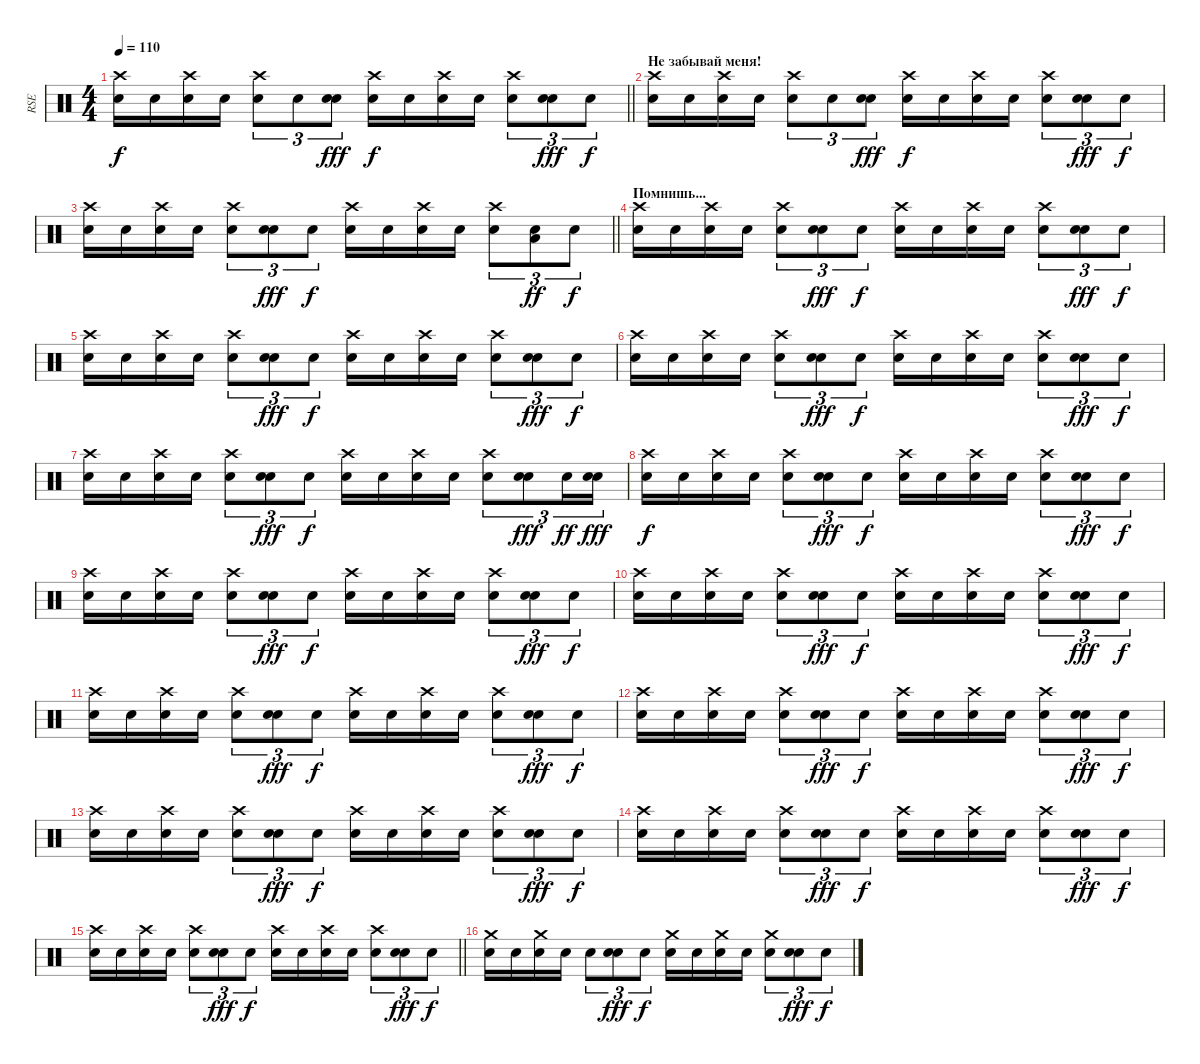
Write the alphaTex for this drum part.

\track ("RSE" "RSE") {instrument percussion}
\staff
\articulation defaults
\ts (4 4)
\tempo 110
\clef neutral
\barLineRight lightlight
\ks c
("Crash high (hit)" "Snare (hit)").16{dy f} "Snare (hit)".16 ("Crash high (hit)" "Snare (hit)").16 "Snare (hit)".16 ("Crash high (hit)" "Snare (hit)").8{tu (3 2)} "Snare (hit)".8{tu (3 2)} ("Electric Snare (hit)" "Snare (hit)").8{tu (3 2) dy fff} ("Crash high (hit)" "Snare (hit)").16{dy f} "Snare (hit)".16 ("Crash high (hit)" "Snare (hit)").16 "Snare (hit)".16 ("Crash high (hit)" "Snare (hit)").8{tu (3 2)} ("Electric Snare (hit)" "Snare (hit)").8{tu (3 2) dy fff} "Snare (hit)".8{tu (3 2) dy f} |
\section ("" "Не забывай меня!")
("Crash high (hit)" "Snare (hit)").16 "Snare (hit)".16 ("Crash high (hit)" "Snare (hit)").16 "Snare (hit)".16 ("Crash high (hit)" "Snare (hit)").8{tu (3 2)} "Snare (hit)".8{tu (3 2)} ("Electric Snare (hit)" "Snare (hit)").8{tu (3 2) dy fff} ("Crash high (hit)" "Snare (hit)").16{dy f} "Snare (hit)".16 ("Crash high (hit)" "Snare (hit)").16 "Snare (hit)".16 ("Crash high (hit)" "Snare (hit)").8{tu (3 2)} ("Electric Snare (hit)" "Snare (hit)").8{tu (3 2) dy fff} "Snare (hit)".8{tu (3 2) dy f} |
\barLineRight lightlight
("Crash high (hit)" "Snare (hit)").16 "Snare (hit)".16 ("Crash high (hit)" "Snare (hit)").16 "Snare (hit)".16 ("Crash high (hit)" "Snare (hit)").8{tu (3 2)} ("Electric Snare (hit)" "Snare (hit)").8{tu (3 2) dy fff} "Snare (hit)".8{tu (3 2) dy f} ("Crash high (hit)" "Snare (hit)").16 "Snare (hit)".16 ("Crash high (hit)" "Snare (hit)").16 "Snare (hit)".16 ("Crash high (hit)" "Snare (hit)").8{tu (3 2)} ("Low Floor Tom (hit)" "Snare (hit)").8{tu (3 2) dy ff} "Snare (hit)".8{tu (3 2) dy f} |
\section ("" "Помнишь...")
("Crash high (hit)" "Snare (hit)").16 "Snare (hit)".16 ("Crash high (hit)" "Snare (hit)").16 "Snare (hit)".16 ("Crash high (hit)" "Snare (hit)").8{tu (3 2)} ("Electric Snare (hit)" "Snare (hit)").8{tu (3 2) dy fff} "Snare (hit)".8{tu (3 2) dy f} ("Crash high (hit)" "Snare (hit)").16 "Snare (hit)".16 ("Crash high (hit)" "Snare (hit)").16 "Snare (hit)".16 ("Crash high (hit)" "Snare (hit)").8{tu (3 2)} ("Electric Snare (hit)" "Snare (hit)").8{tu (3 2) dy fff} "Snare (hit)".8{tu (3 2) dy f} |
("Crash high (hit)" "Snare (hit)").16 "Snare (hit)".16 ("Crash high (hit)" "Snare (hit)").16 "Snare (hit)".16 ("Crash high (hit)" "Snare (hit)").8{tu (3 2)} ("Electric Snare (hit)" "Snare (hit)").8{tu (3 2) dy fff} "Snare (hit)".8{tu (3 2) dy f} ("Crash high (hit)" "Snare (hit)").16 "Snare (hit)".16 ("Crash high (hit)" "Snare (hit)").16 "Snare (hit)".16 ("Crash high (hit)" "Snare (hit)").8{tu (3 2)} ("Electric Snare (hit)" "Snare (hit)").8{tu (3 2) dy fff} "Snare (hit)".8{tu (3 2) dy f} |
("Crash high (hit)" "Snare (hit)").16 "Snare (hit)".16 ("Crash high (hit)" "Snare (hit)").16 "Snare (hit)".16 ("Crash high (hit)" "Snare (hit)").8{tu (3 2)} ("Electric Snare (hit)" "Snare (hit)").8{tu (3 2) dy fff} "Snare (hit)".8{tu (3 2) dy f} ("Crash high (hit)" "Snare (hit)").16 "Snare (hit)".16 ("Crash high (hit)" "Snare (hit)").16 "Snare (hit)".16 ("Crash high (hit)" "Snare (hit)").8{tu (3 2)} ("Electric Snare (hit)" "Snare (hit)").8{tu (3 2) dy fff} "Snare (hit)".8{tu (3 2) dy f} |
("Crash high (hit)" "Snare (hit)").16 "Snare (hit)".16 ("Crash high (hit)" "Snare (hit)").16 "Snare (hit)".16 ("Crash high (hit)" "Snare (hit)").8{tu (3 2)} ("Electric Snare (hit)" "Snare (hit)").8{tu (3 2) dy fff} "Snare (hit)".8{tu (3 2) dy f} ("Crash high (hit)" "Snare (hit)").16 "Snare (hit)".16 ("Crash high (hit)" "Snare (hit)").16 "Snare (hit)".16 ("Crash high (hit)" "Snare (hit)").8{tu (3 2)} ("Electric Snare (hit)" "Snare (hit)").8{tu (3 2) dy fff} "Snare (hit)".16{tu (3 2) dy ff} ("Electric Snare (hit)" "Snare (hit)").16{tu (3 2) dy fff} |
("Crash high (hit)" "Snare (hit)").16{dy f} "Snare (hit)".16 ("Crash high (hit)" "Snare (hit)").16 "Snare (hit)".16 ("Crash high (hit)" "Snare (hit)").8{tu (3 2)} ("Electric Snare (hit)" "Snare (hit)").8{tu (3 2) dy fff} "Snare (hit)".8{tu (3 2) dy f} ("Crash high (hit)" "Snare (hit)").16 "Snare (hit)".16 ("Crash high (hit)" "Snare (hit)").16 "Snare (hit)".16 ("Crash high (hit)" "Snare (hit)").8{tu (3 2)} ("Electric Snare (hit)" "Snare (hit)").8{tu (3 2) dy fff} "Snare (hit)".8{tu (3 2) dy f} |
("Crash high (hit)" "Snare (hit)").16 "Snare (hit)".16 ("Crash high (hit)" "Snare (hit)").16 "Snare (hit)".16 ("Crash high (hit)" "Snare (hit)").8{tu (3 2)} ("Electric Snare (hit)" "Snare (hit)").8{tu (3 2) dy fff} "Snare (hit)".8{tu (3 2) dy f} ("Crash high (hit)" "Snare (hit)").16 "Snare (hit)".16 ("Crash high (hit)" "Snare (hit)").16 "Snare (hit)".16 ("Crash high (hit)" "Snare (hit)").8{tu (3 2)} ("Electric Snare (hit)" "Snare (hit)").8{tu (3 2) dy fff} "Snare (hit)".8{tu (3 2) dy f} |
("Crash high (hit)" "Snare (hit)").16 "Snare (hit)".16 ("Crash high (hit)" "Snare (hit)").16 "Snare (hit)".16 ("Crash high (hit)" "Snare (hit)").8{tu (3 2)} ("Electric Snare (hit)" "Snare (hit)").8{tu (3 2) dy fff} "Snare (hit)".8{tu (3 2) dy f} ("Crash high (hit)" "Snare (hit)").16 "Snare (hit)".16 ("Crash high (hit)" "Snare (hit)").16 "Snare (hit)".16 ("Crash high (hit)" "Snare (hit)").8{tu (3 2)} ("Electric Snare (hit)" "Snare (hit)").8{tu (3 2) dy fff} "Snare (hit)".8{tu (3 2) dy f} |
("Crash high (hit)" "Snare (hit)").16 "Snare (hit)".16 ("Crash high (hit)" "Snare (hit)").16 "Snare (hit)".16 ("Crash high (hit)" "Snare (hit)").8{tu (3 2)} ("Electric Snare (hit)" "Snare (hit)").8{tu (3 2) dy fff} "Snare (hit)".8{tu (3 2) dy f} ("Crash high (hit)" "Snare (hit)").16 "Snare (hit)".16 ("Crash high (hit)" "Snare (hit)").16 "Snare (hit)".16 ("Crash high (hit)" "Snare (hit)").8{tu (3 2)} ("Electric Snare (hit)" "Snare (hit)").8{tu (3 2) dy fff} "Snare (hit)".8{tu (3 2) dy f} |
("Crash high (hit)" "Snare (hit)").16 "Snare (hit)".16 ("Crash high (hit)" "Snare (hit)").16 "Snare (hit)".16 ("Crash high (hit)" "Snare (hit)").8{tu (3 2)} ("Electric Snare (hit)" "Snare (hit)").8{tu (3 2) dy fff} "Snare (hit)".8{tu (3 2) dy f} ("Crash high (hit)" "Snare (hit)").16 "Snare (hit)".16 ("Crash high (hit)" "Snare (hit)").16 "Snare (hit)".16 ("Crash high (hit)" "Snare (hit)").8{tu (3 2)} ("Electric Snare (hit)" "Snare (hit)").8{tu (3 2) dy fff} "Snare (hit)".8{tu (3 2) dy f} |
("Crash high (hit)" "Snare (hit)").16 "Snare (hit)".16 ("Crash high (hit)" "Snare (hit)").16 "Snare (hit)".16 ("Crash high (hit)" "Snare (hit)").8{tu (3 2)} ("Electric Snare (hit)" "Snare (hit)").8{tu (3 2) dy fff} "Snare (hit)".8{tu (3 2) dy f} ("Crash high (hit)" "Snare (hit)").16 "Snare (hit)".16 ("Crash high (hit)" "Snare (hit)").16 "Snare (hit)".16 ("Crash high (hit)" "Snare (hit)").8{tu (3 2)} ("Electric Snare (hit)" "Snare (hit)").8{tu (3 2) dy fff} "Snare (hit)".8{tu (3 2) dy f} |
("Crash high (hit)" "Snare (hit)").16 "Snare (hit)".16 ("Crash high (hit)" "Snare (hit)").16 "Snare (hit)".16 ("Crash high (hit)" "Snare (hit)").8{tu (3 2)} ("Electric Snare (hit)" "Snare (hit)").8{tu (3 2) dy fff} "Snare (hit)".8{tu (3 2) dy f} ("Crash high (hit)" "Snare (hit)").16 "Snare (hit)".16 ("Crash high (hit)" "Snare (hit)").16 "Snare (hit)".16 ("Crash high (hit)" "Snare (hit)").8{tu (3 2)} ("Electric Snare (hit)" "Snare (hit)").8{tu (3 2) dy fff} "Snare (hit)".8{tu (3 2) dy f} |
\barLineRight lightlight
("Crash high (hit)" "Snare (hit)").16 "Snare (hit)".16 ("Crash high (hit)" "Snare (hit)").16 "Snare (hit)".16 ("Crash high (hit)" "Snare (hit)").8{tu (3 2)} ("Electric Snare (hit)" "Snare (hit)").8{tu (3 2) dy fff} "Snare (hit)".8{tu (3 2) dy f} ("Crash high (hit)" "Snare (hit)").16 "Snare (hit)".16 ("Crash high (hit)" "Snare (hit)").16 "Snare (hit)".16 ("Crash high (hit)" "Snare (hit)").8{tu (3 2)} ("Electric Snare (hit)" "Snare (hit)").8{tu (3 2) dy fff} "Snare (hit)".8{tu (3 2) dy f} |
("Crash medium (hit)" "Snare (hit)").16 "Snare (hit)".16 ("Crash medium (hit)" "Snare (hit)").16 "Snare (hit)".16 "Snare (hit)".8{tu (3 2)} ("Electric Snare (hit)" "Snare (hit)").8{tu (3 2) dy fff} "Snare (hit)".8{tu (3 2) dy f} ("Crash medium (hit)" "Snare (hit)").16 "Snare (hit)".16 ("Crash medium (hit)" "Snare (hit)").16 "Snare (hit)".16 ("Crash medium (hit)" "Snare (hit)").8{tu (3 2)} ("Electric Snare (hit)" "Snare (hit)").8{tu (3 2) dy fff} "Snare (hit)".8{tu (3 2) dy f}
